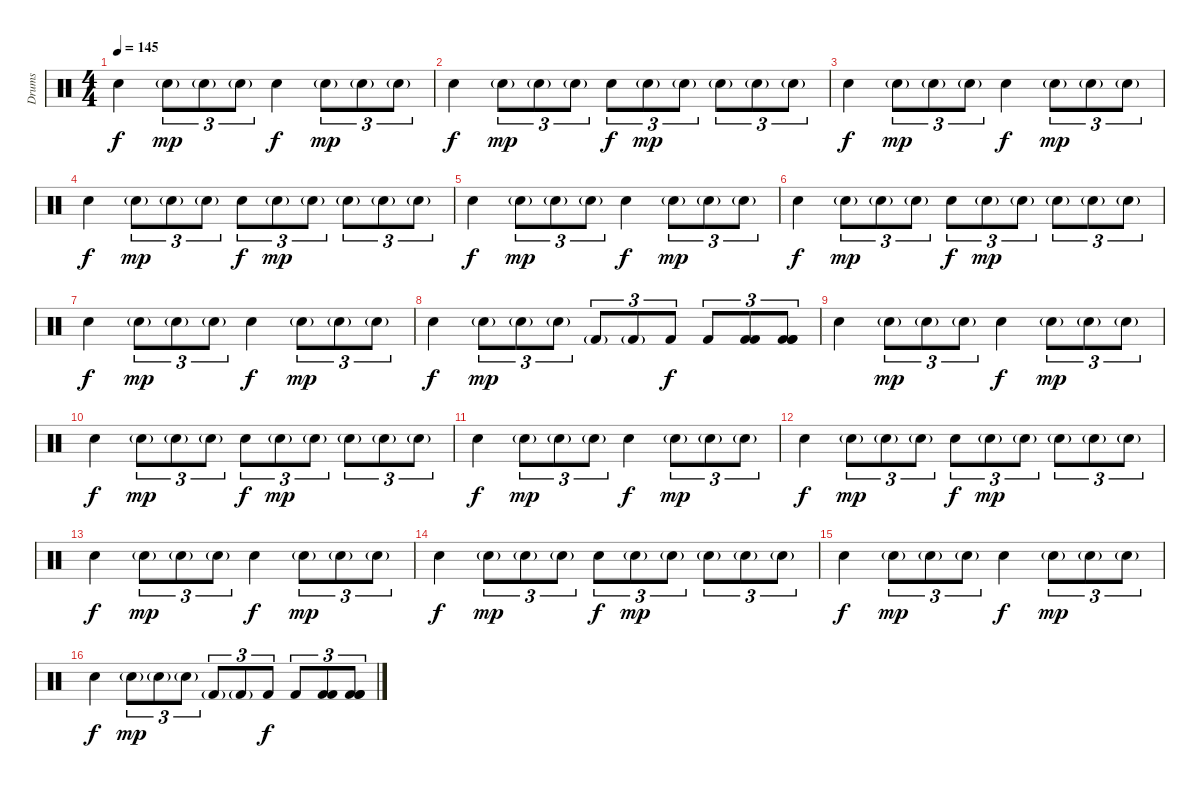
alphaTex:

\track ("Drums" "Drums") {instrument percussion}
\staff {score}
\articulation defaults
\ts (4 4)
\tempo 145
\clef neutral
\ks c "Snare (hit) 2".4{dy f} "Snare (hit) 2"{g}.8{tu (3 2) dy mp} "Snare (hit) 2"{g}.8{tu (3 2)} "Snare (hit) 2"{g}.8{tu (3 2)} "Snare (hit) 2".4{dy f} "Snare (hit) 2"{g}.8{tu (3 2) dy mp} "Snare (hit) 2"{g}.8{tu (3 2)} "Snare (hit) 2"{g}.8{tu (3 2)}
|
"Snare (hit) 2".4{dy f} "Snare (hit) 2"{g}.8{tu (3 2) dy mp} "Snare (hit) 2"{g}.8{tu (3 2)} "Snare (hit) 2"{g}.8{tu (3 2)} "Snare (hit) 2".8{tu (3 2) dy f} "Snare (hit) 2"{g}.8{tu (3 2) dy mp} "Snare (hit) 2"{g}.8{tu (3 2)} "Snare (hit) 2"{g}.8{tu (3 2)} "Snare (hit) 2"{g}.8{tu (3 2)} "Snare (hit) 2"{g}.8{tu (3 2)} |
"Snare (hit) 2".4{dy f} "Snare (hit) 2"{g}.8{tu (3 2) dy mp} "Snare (hit) 2"{g}.8{tu (3 2)} "Snare (hit) 2"{g}.8{tu (3 2)} "Snare (hit) 2".4{dy f} "Snare (hit) 2"{g}.8{tu (3 2) dy mp} "Snare (hit) 2"{g}.8{tu (3 2)} "Snare (hit) 2"{g}.8{tu (3 2)} |
"Snare (hit) 2".4{dy f} "Snare (hit) 2"{g}.8{tu (3 2) dy mp} "Snare (hit) 2"{g}.8{tu (3 2)} "Snare (hit) 2"{g}.8{tu (3 2)} "Snare (hit) 2".8{tu (3 2) dy f} "Snare (hit) 2"{g}.8{tu (3 2) dy mp} "Snare (hit) 2"{g}.8{tu (3 2)} "Snare (hit) 2"{g}.8{tu (3 2)} "Snare (hit) 2"{g}.8{tu (3 2)} "Snare (hit) 2"{g}.8{tu (3 2)} |
"Snare (hit) 2".4{dy f} "Snare (hit) 2"{g}.8{tu (3 2) dy mp} "Snare (hit) 2"{g}.8{tu (3 2)} "Snare (hit) 2"{g}.8{tu (3 2)} "Snare (hit) 2".4{dy f} "Snare (hit) 2"{g}.8{tu (3 2) dy mp} "Snare (hit) 2"{g}.8{tu (3 2)} "Snare (hit) 2"{g}.8{tu (3 2)} |
"Snare (hit) 2".4{dy f} "Snare (hit) 2"{g}.8{tu (3 2) dy mp} "Snare (hit) 2"{g}.8{tu (3 2)} "Snare (hit) 2"{g}.8{tu (3 2)} "Snare (hit) 2".8{tu (3 2) dy f} "Snare (hit) 2"{g}.8{tu (3 2) dy mp} "Snare (hit) 2"{g}.8{tu (3 2)} "Snare (hit) 2"{g}.8{tu (3 2)} "Snare (hit) 2"{g}.8{tu (3 2)} "Snare (hit) 2"{g}.8{tu (3 2)} |
"Snare (hit) 2".4{dy f} "Snare (hit) 2"{g}.8{tu (3 2) dy mp} "Snare (hit) 2"{g}.8{tu (3 2)} "Snare (hit) 2"{g}.8{tu (3 2)} "Snare (hit) 2".4{dy f} "Snare (hit) 2"{g}.8{tu (3 2) dy mp} "Snare (hit) 2"{g}.8{tu (3 2)} "Snare (hit) 2"{g}.8{tu (3 2)} |
"Snare (hit) 2".4{dy f} "Snare (hit) 2"{g}.8{tu (3 2) dy mp} "Snare (hit) 2"{g}.8{tu (3 2)} "Snare (hit) 2"{g}.8{tu (3 2)} "Kick (hit) 2"{g}.8{tu (3 2)} "Kick (hit) 2"{g}.8{tu (3 2)} "Kick (hit) 2".8{tu (3 2) dy f} "Kick (hit) 2".8{tu (3 2)} ("Kick (hit) 2" "Kick (hit) 2").8{tu (3 2)} ("Kick (hit) 2" "Kick (hit) 2" "Kick (hit) 2").8{tu (3 2)} |
"Snare (hit) 2".4 "Snare (hit) 2"{g}.8{tu (3 2) dy mp} "Snare (hit) 2"{g}.8{tu (3 2)} "Snare (hit) 2"{g}.8{tu (3 2)} "Snare (hit) 2".4{dy f} "Snare (hit) 2"{g}.8{tu (3 2) dy mp} "Snare (hit) 2"{g}.8{tu (3 2)} "Snare (hit) 2"{g}.8{tu (3 2)} |
"Snare (hit) 2".4{dy f} "Snare (hit) 2"{g}.8{tu (3 2) dy mp} "Snare (hit) 2"{g}.8{tu (3 2)} "Snare (hit) 2"{g}.8{tu (3 2)} "Snare (hit) 2".8{tu (3 2) dy f} "Snare (hit) 2"{g}.8{tu (3 2) dy mp} "Snare (hit) 2"{g}.8{tu (3 2)} "Snare (hit) 2"{g}.8{tu (3 2)} "Snare (hit) 2"{g}.8{tu (3 2)} "Snare (hit) 2"{g}.8{tu (3 2)} |
"Snare (hit) 2".4{dy f} "Snare (hit) 2"{g}.8{tu (3 2) dy mp} "Snare (hit) 2"{g}.8{tu (3 2)} "Snare (hit) 2"{g}.8{tu (3 2)} "Snare (hit) 2".4{dy f} "Snare (hit) 2"{g}.8{tu (3 2) dy mp} "Snare (hit) 2"{g}.8{tu (3 2)} "Snare (hit) 2"{g}.8{tu (3 2)} |
"Snare (hit) 2".4{dy f} "Snare (hit) 2"{g}.8{tu (3 2) dy mp} "Snare (hit) 2"{g}.8{tu (3 2)} "Snare (hit) 2"{g}.8{tu (3 2)} "Snare (hit) 2".8{tu (3 2) dy f} "Snare (hit) 2"{g}.8{tu (3 2) dy mp} "Snare (hit) 2"{g}.8{tu (3 2)} "Snare (hit) 2"{g}.8{tu (3 2)} "Snare (hit) 2"{g}.8{tu (3 2)} "Snare (hit) 2"{g}.8{tu (3 2)} |
"Snare (hit) 2".4{dy f} "Snare (hit) 2"{g}.8{tu (3 2) dy mp} "Snare (hit) 2"{g}.8{tu (3 2)} "Snare (hit) 2"{g}.8{tu (3 2)} "Snare (hit) 2".4{dy f} "Snare (hit) 2"{g}.8{tu (3 2) dy mp} "Snare (hit) 2"{g}.8{tu (3 2)} "Snare (hit) 2"{g}.8{tu (3 2)} |
"Snare (hit) 2".4{dy f} "Snare (hit) 2"{g}.8{tu (3 2) dy mp} "Snare (hit) 2"{g}.8{tu (3 2)} "Snare (hit) 2"{g}.8{tu (3 2)} "Snare (hit) 2".8{tu (3 2) dy f} "Snare (hit) 2"{g}.8{tu (3 2) dy mp} "Snare (hit) 2"{g}.8{tu (3 2)} "Snare (hit) 2"{g}.8{tu (3 2)} "Snare (hit) 2"{g}.8{tu (3 2)} "Snare (hit) 2"{g}.8{tu (3 2)} |
"Snare (hit) 2".4{dy f} "Snare (hit) 2"{g}.8{tu (3 2) dy mp} "Snare (hit) 2"{g}.8{tu (3 2)} "Snare (hit) 2"{g}.8{tu (3 2)} "Snare (hit) 2".4{dy f} "Snare (hit) 2"{g}.8{tu (3 2) dy mp} "Snare (hit) 2"{g}.8{tu (3 2)} "Snare (hit) 2"{g}.8{tu (3 2)} |
"Snare (hit) 2".4{dy f} "Snare (hit) 2"{g}.8{tu (3 2) dy mp} "Snare (hit) 2"{g}.8{tu (3 2)} "Snare (hit) 2"{g}.8{tu (3 2)} "Kick (hit) 2"{g}.8{tu (3 2)} "Kick (hit) 2"{g}.8{tu (3 2)} "Kick (hit) 2".8{tu (3 2) dy f} "Kick (hit) 2".8{tu (3 2)} ("Kick (hit) 2" "Kick (hit) 2").8{tu (3 2)} ("Kick (hit) 2" "Kick (hit) 2" "Kick (hit) 2").8{tu (3 2)}
